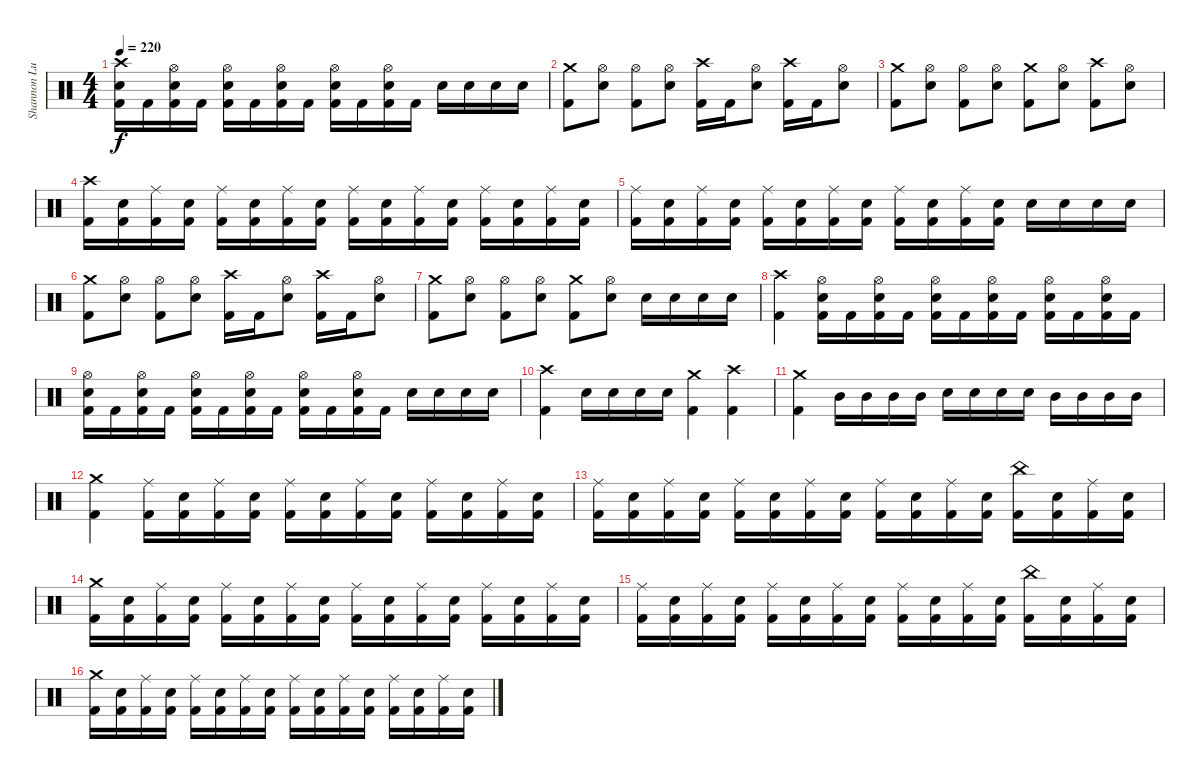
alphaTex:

\track ("Shannon Lucas [Drums (Since 2007)]" "Shannon Lu") {instrument percussion}
\staff {score}
\articulation defaults
\ts (4 4)
\tempo 220
\clef neutral
\ks c
("Crash high (hit)" "Snare (hit) 2" "Kick (hit) 2").16{dy f} "Kick (hit) 2".16 ("Hi-Hat (open)" "Snare (hit) 2" "Kick (hit) 2").16 "Kick (hit) 2".16 ("Hi-Hat (open)" "Snare (hit) 2" "Kick (hit) 2").16 "Kick (hit) 2".16 ("Hi-Hat (open)" "Snare (hit) 2" "Kick (hit) 2").16 "Kick (hit) 2".16 ("Hi-Hat (open)" "Snare (hit) 2" "Kick (hit) 2").16 "Kick (hit) 2".16 ("Hi-Hat (open)" "Snare (hit) 2" "Kick (hit) 2").16 "Kick (hit) 2".16 "Snare (hit) 2".16 "Snare (hit) 2".16 "Snare (hit) 2".16 "Snare (hit) 2".16 |
("Crash medium (hit)" "Kick (hit) 2").8 ("Hi-Hat (open)" "Snare (hit) 2").8 ("Hi-Hat (open)" "Kick (hit) 2").8 ("Hi-Hat (open)" "Snare (hit) 2").8 ("Crash high (hit)" "Kick (hit) 2").16 "Kick (hit) 2".16 ("Hi-Hat (open)" "Snare (hit) 2").8 ("Crash high (hit)" "Kick (hit) 2").16 "Kick (hit) 2".16 ("Hi-Hat (open)" "Snare (hit) 2").8 |
("Crash medium (hit)" "Kick (hit) 2").8 ("Hi-Hat (open)" "Snare (hit) 2").8 ("Hi-Hat (open)" "Kick (hit) 2").8 ("Hi-Hat (open)" "Snare (hit) 2").8 ("Crash medium (hit)" "Kick (hit) 2").8 ("Hi-Hat (open)" "Snare (hit) 2").8 ("Crash high (hit)" "Kick (hit) 2").8 ("Hi-Hat (open)" "Snare (hit) 2").8 |
("Crash high (hit)" "Kick (hit) 2").16 ("Snare (hit) 2" "Kick (hit) 2").16 ("Ride (middle)" "Kick (hit) 2").16 ("Snare (hit) 2" "Kick (hit) 2").16 ("Ride (middle)" "Kick (hit) 2").16 ("Snare (hit) 2" "Kick (hit) 2").16 ("Ride (middle)" "Kick (hit) 2").16 ("Snare (hit) 2" "Kick (hit) 2").16 ("Ride (middle)" "Kick (hit) 2").16 ("Snare (hit) 2" "Kick (hit) 2").16 ("Ride (middle)" "Kick (hit) 2").16 ("Snare (hit) 2" "Kick (hit) 2").16 ("Ride (middle)" "Kick (hit) 2").16 ("Snare (hit) 2" "Kick (hit) 2").16 ("Ride (middle)" "Kick (hit) 2").16 ("Snare (hit) 2" "Kick (hit) 2").16 |
("Ride (middle)" "Kick (hit) 2").16 ("Snare (hit) 2" "Kick (hit) 2").16 ("Ride (middle)" "Kick (hit) 2").16 ("Snare (hit) 2" "Kick (hit) 2").16 ("Ride (middle)" "Kick (hit) 2").16 ("Snare (hit) 2" "Kick (hit) 2").16 ("Ride (middle)" "Kick (hit) 2").16 ("Snare (hit) 2" "Kick (hit) 2").16 ("Ride (middle)" "Kick (hit) 2").16 ("Snare (hit) 2" "Kick (hit) 2").16 ("Ride (middle)" "Kick (hit) 2").16 ("Snare (hit) 2" "Kick (hit) 2").16 "Snare (hit) 2".16 "Snare (hit) 2".16 "Snare (hit) 2".16 "Snare (hit) 2".16 |
("Crash medium (hit)" "Kick (hit) 2").8 ("Hi-Hat (open)" "Snare (hit) 2").8 ("Hi-Hat (open)" "Kick (hit) 2").8 ("Hi-Hat (open)" "Snare (hit) 2").8 ("Crash high (hit)" "Kick (hit) 2").16 "Kick (hit) 2".16 ("Hi-Hat (open)" "Snare (hit) 2").8 ("Crash high (hit)" "Kick (hit) 2").16 "Kick (hit) 2".16 ("Hi-Hat (open)" "Snare (hit) 2").8 |
("Crash medium (hit)" "Kick (hit) 2").8 ("Hi-Hat (open)" "Snare (hit) 2").8 ("Hi-Hat (open)" "Kick (hit) 2").8 ("Hi-Hat (open)" "Snare (hit) 2").8 ("Crash medium (hit)" "Kick (hit) 2").8 ("Hi-Hat (open)" "Snare (hit) 2").8 "Snare (hit) 2".16 "Snare (hit) 2".16 "Snare (hit) 2".16 "Snare (hit) 2".16 |
("Crash high (hit)" "Kick (hit) 2").4 ("Hi-Hat (open)" "Snare (hit) 2" "Kick (hit) 2").16 "Kick (hit) 2".16 ("Hi-Hat (open)" "Snare (hit) 2" "Kick (hit) 2").16 "Kick (hit) 2".16 ("Hi-Hat (open)" "Snare (hit) 2" "Kick (hit) 2").16 "Kick (hit) 2".16 ("Hi-Hat (open)" "Snare (hit) 2" "Kick (hit) 2").16 "Kick (hit) 2".16 ("Hi-Hat (open)" "Snare (hit) 2" "Kick (hit) 2").16 "Kick (hit) 2".16 ("Hi-Hat (open)" "Snare (hit) 2" "Kick (hit) 2").16 "Kick (hit) 2".16 |
("Hi-Hat (open)" "Snare (hit) 2" "Kick (hit) 2").16 "Kick (hit) 2".16 ("Hi-Hat (open)" "Snare (hit) 2" "Kick (hit) 2").16 "Kick (hit) 2".16 ("Hi-Hat (open)" "Snare (hit) 2" "Kick (hit) 2").16 "Kick (hit) 2".16 ("Hi-Hat (open)" "Snare (hit) 2" "Kick (hit) 2").16 "Kick (hit) 2".16 ("Hi-Hat (open)" "Snare (hit) 2" "Kick (hit) 2").16 "Kick (hit) 2".16 ("Hi-Hat (open)" "Snare (hit) 2" "Kick (hit) 2").16 "Kick (hit) 2".16 "Snare (hit) 2".16 "Snare (hit) 2".16 "Snare (hit) 2".16 "Snare (hit) 2".16 |
("Crash high (hit)" "Kick (hit) 2").4 "Snare (hit) 2".16 "Snare (hit) 2".16 "Snare (hit) 2".16 "Snare (hit) 2".16 ("Crash medium (hit)" "Kick (hit) 2").4 ("Crash high (hit)" "Kick (hit) 2").4 |
("Crash medium (hit)" "Kick (hit) 2").4 "Mid Tom (hit)".16 "Mid Tom (hit)".16 "Mid Tom (hit)".16 "Mid Tom (hit)".16 "Snare (hit) 2".16 "Snare (hit) 2".16 "Snare (hit) 2".16 "Snare (hit) 2".16 "Mid Tom (hit)".16 "Mid Tom (hit)".16 "Mid Tom (hit)".16 "Mid Tom (hit)".16 |
("Crash medium (hit)" "Kick (hit) 2").4 ("Ride (middle)" "Kick (hit) 2").16 ("Snare (hit) 2" "Kick (hit) 2").16 ("Ride (middle)" "Kick (hit) 2").16 ("Snare (hit) 2" "Kick (hit) 2").16 ("Ride (middle)" "Kick (hit) 2").16 ("Snare (hit) 2" "Kick (hit) 2").16 ("Ride (middle)" "Kick (hit) 2").16 ("Snare (hit) 2" "Kick (hit) 2").16 ("Ride (middle)" "Kick (hit) 2").16 ("Snare (hit) 2" "Kick (hit) 2").16 ("Ride (middle)" "Kick (hit) 2").16 ("Snare (hit) 2" "Kick (hit) 2").16 |
("Ride (middle)" "Kick (hit) 2").16 ("Snare (hit) 2" "Kick (hit) 2").16 ("Ride (middle)" "Kick (hit) 2").16 ("Snare (hit) 2" "Kick (hit) 2").16 ("Ride (middle)" "Kick (hit) 2").16 ("Snare (hit) 2" "Kick (hit) 2").16 ("Ride (middle)" "Kick (hit) 2").16 ("Snare (hit) 2" "Kick (hit) 2").16 ("Ride (middle)" "Kick (hit) 2").16 ("Snare (hit) 2" "Kick (hit) 2").16 ("Ride (middle)" "Kick (hit) 2").16 ("Snare (hit) 2" "Kick (hit) 2").16 ("China (hit)" "Kick (hit) 2").16 ("Snare (hit) 2" "Kick (hit) 2").16 ("Ride (middle)" "Kick (hit) 2").16 ("Snare (hit) 2" "Kick (hit) 2").16 |
("Crash medium (hit)" "Kick (hit) 2").16 ("Snare (hit) 2" "Kick (hit) 2").16 ("Ride (middle)" "Kick (hit) 2").16 ("Snare (hit) 2" "Kick (hit) 2").16 ("Ride (middle)" "Kick (hit) 2").16 ("Snare (hit) 2" "Kick (hit) 2").16 ("Ride (middle)" "Kick (hit) 2").16 ("Snare (hit) 2" "Kick (hit) 2").16 ("Ride (middle)" "Kick (hit) 2").16 ("Snare (hit) 2" "Kick (hit) 2").16 ("Ride (middle)" "Kick (hit) 2").16 ("Snare (hit) 2" "Kick (hit) 2").16 ("Ride (middle)" "Kick (hit) 2").16 ("Snare (hit) 2" "Kick (hit) 2").16 ("Ride (middle)" "Kick (hit) 2").16 ("Snare (hit) 2" "Kick (hit) 2").16 |
("Ride (middle)" "Kick (hit) 2").16 ("Snare (hit) 2" "Kick (hit) 2").16 ("Ride (middle)" "Kick (hit) 2").16 ("Snare (hit) 2" "Kick (hit) 2").16 ("Ride (middle)" "Kick (hit) 2").16 ("Snare (hit) 2" "Kick (hit) 2").16 ("Ride (middle)" "Kick (hit) 2").16 ("Snare (hit) 2" "Kick (hit) 2").16 ("Ride (middle)" "Kick (hit) 2").16 ("Snare (hit) 2" "Kick (hit) 2").16 ("Ride (middle)" "Kick (hit) 2").16 ("Snare (hit) 2" "Kick (hit) 2").16 ("China (hit)" "Kick (hit) 2").16 ("Snare (hit) 2" "Kick (hit) 2").16 ("Ride (middle)" "Kick (hit) 2").16 ("Snare (hit) 2" "Kick (hit) 2").16 |
("Crash medium (hit)" "Kick (hit) 2").16 ("Snare (hit) 2" "Kick (hit) 2").16 ("Ride (middle)" "Kick (hit) 2").16 ("Snare (hit) 2" "Kick (hit) 2").16 ("Ride (middle)" "Kick (hit) 2").16 ("Snare (hit) 2" "Kick (hit) 2").16 ("Ride (middle)" "Kick (hit) 2").16 ("Snare (hit) 2" "Kick (hit) 2").16 ("Ride (middle)" "Kick (hit) 2").16 ("Snare (hit) 2" "Kick (hit) 2").16 ("Ride (middle)" "Kick (hit) 2").16 ("Snare (hit) 2" "Kick (hit) 2").16 ("Ride (middle)" "Kick (hit) 2").16 ("Snare (hit) 2" "Kick (hit) 2").16 ("Ride (middle)" "Kick (hit) 2").16 ("Snare (hit) 2" "Kick (hit) 2").16
